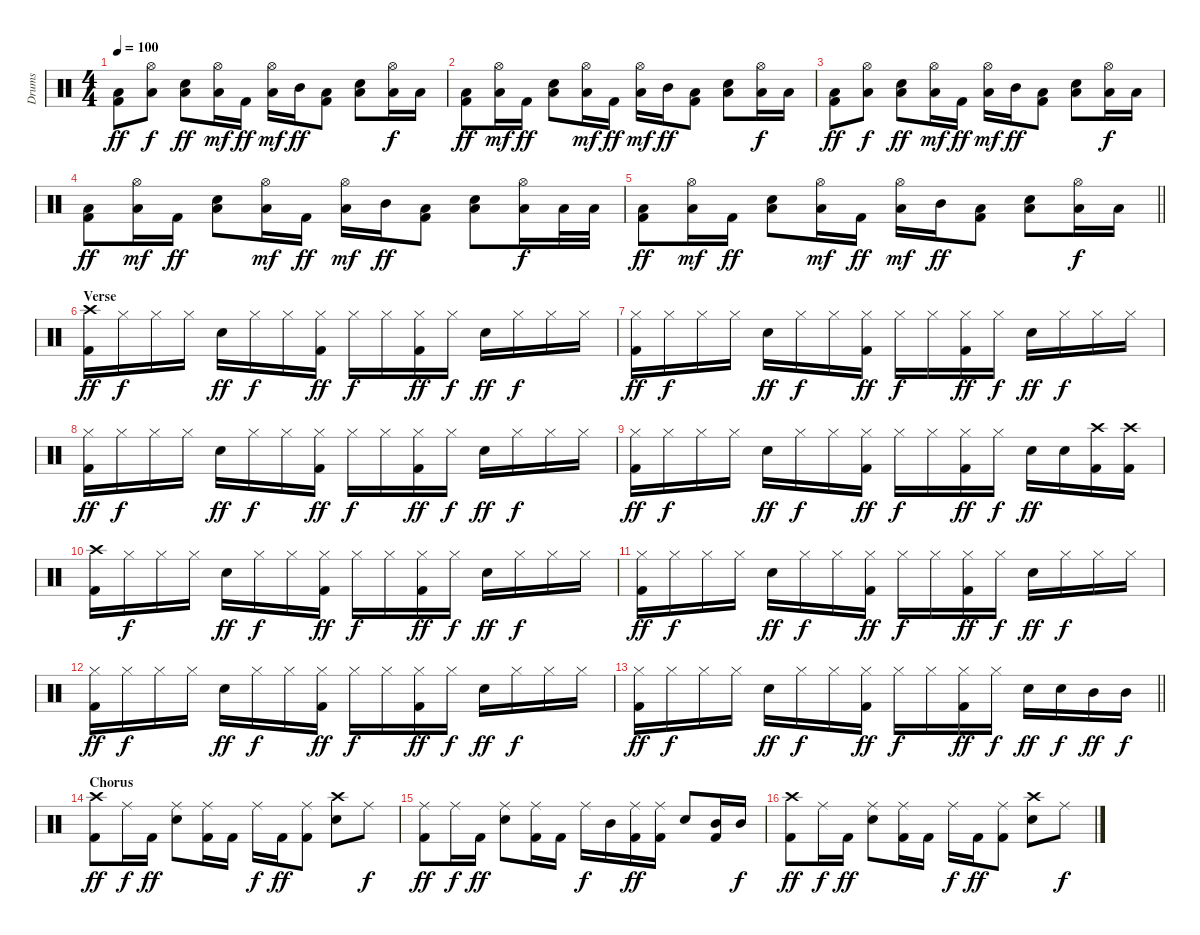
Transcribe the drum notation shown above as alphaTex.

\track ("Drums" "Drums") {instrument percussion}
\staff {score}
\articulation defaults
\ts (4 4)
\tempo 100
\clef neutral
\ks c
("Low Tom (hit)" "Kick (hit) 2").8{dy ff} ("Hi-Hat (open)" "Low Tom (hit)").8{dy f} ("Low Tom (hit)" "Snare (hit) 2").8{dy ff} ("Hi-Hat (open)" "Low Tom (hit)").16{dy mf} "Kick (hit) 2".16{dy ff} ("Hi-Hat (open)" "Low Tom (hit)").16{dy mf} "Mid Tom (hit)".16{dy ff} ("Low Tom (hit)" "Kick (hit) 2").8 ("Low Tom (hit)" "Snare (hit) 2").8 ("Hi-Hat (open)" "Low Tom (hit)").16{dy f} "Low Tom (hit)".16 |
("Low Tom (hit)" "Kick (hit) 2").8{dy ff} ("Hi-Hat (open)" "Low Tom (hit)").16{dy mf} "Kick (hit) 2".16{dy ff} ("Low Tom (hit)" "Snare (hit) 2").8 ("Hi-Hat (open)" "Low Tom (hit)").16{dy mf} "Kick (hit) 2".16{dy ff} ("Hi-Hat (open)" "Low Tom (hit)").16{dy mf} "Mid Tom (hit)".16{dy ff} ("Low Tom (hit)" "Kick (hit) 2").8 ("Low Tom (hit)" "Snare (hit) 2").8 ("Hi-Hat (open)" "Low Tom (hit)").16{dy f} "Low Tom (hit)".16 |
("Low Tom (hit)" "Kick (hit) 2").8{dy ff} ("Hi-Hat (open)" "Low Tom (hit)").8{dy f} ("Low Tom (hit)" "Snare (hit) 2").8{dy ff} ("Hi-Hat (open)" "Low Tom (hit)").16{dy mf} "Kick (hit) 2".16{dy ff} ("Hi-Hat (open)" "Low Tom (hit)").16{dy mf} "Mid Tom (hit)".16{dy ff} ("Low Tom (hit)" "Kick (hit) 2").8 ("Low Tom (hit)" "Snare (hit) 2").8 ("Hi-Hat (open)" "Low Tom (hit)").16{dy f} "Low Tom (hit)".16 |
("Low Tom (hit)" "Kick (hit) 2").8{dy ff} ("Hi-Hat (open)" "Low Tom (hit)").16{dy mf} "Kick (hit) 2".16{dy ff} ("Low Tom (hit)" "Snare (hit) 2").8 ("Hi-Hat (open)" "Low Tom (hit)").16{dy mf} "Kick (hit) 2".16{dy ff} ("Hi-Hat (open)" "Low Tom (hit)").16{dy mf} "Mid Tom (hit)".16{dy ff} ("Low Tom (hit)" "Kick (hit) 2").8 ("Low Tom (hit)" "Snare (hit) 2").8 ("Hi-Hat (open)" "Low Tom (hit)").16{dy f} "Low Tom (hit)".32 "Low Tom (hit)".32 |
\barLineRight lightlight
("Low Tom (hit)" "Kick (hit) 2").8{dy ff} ("Hi-Hat (open)" "Low Tom (hit)").16{dy mf} "Kick (hit) 2".16{dy ff} ("Low Tom (hit)" "Snare (hit) 2").8 ("Hi-Hat (open)" "Low Tom (hit)").16{dy mf} "Kick (hit) 2".16{dy ff} ("Hi-Hat (open)" "Low Tom (hit)").16{dy mf} "Mid Tom (hit)".16{dy ff} ("Low Tom (hit)" "Kick (hit) 2").8 ("Low Tom (hit)" "Snare (hit) 2").8 ("Hi-Hat (open)" "Low Floor Tom (hit)").16{dy f} "Low Floor Tom (hit)".16 |
\section ("" "Verse")
("Crash high (hit)" "Kick (hit) 2").16{dy ff} "Hi-Hat (closed)".16{dy f} "Hi-Hat (closed)".16 "Hi-Hat (closed)".16 "Snare (hit) 2".16{dy ff} "Hi-Hat (closed)".16{dy f} "Hi-Hat (closed)".16 ("Hi-Hat (closed)" "Kick (hit) 2").16{dy ff} "Hi-Hat (closed)".16{dy f} "Hi-Hat (closed)".16 ("Hi-Hat (closed)" "Kick (hit) 2").16{dy ff} "Hi-Hat (closed)".16{dy f} "Snare (hit) 2".16{dy ff} "Hi-Hat (closed)".16{dy f} "Hi-Hat (closed)".16 "Hi-Hat (closed)".16 |
("Hi-Hat (closed)" "Kick (hit) 2").16{dy ff} "Hi-Hat (closed)".16{dy f} "Hi-Hat (closed)".16 "Hi-Hat (closed)".16 "Snare (hit) 2".16{dy ff} "Hi-Hat (closed)".16{dy f} "Hi-Hat (closed)".16 ("Hi-Hat (closed)" "Kick (hit) 2").16{dy ff} "Hi-Hat (closed)".16{dy f} "Hi-Hat (closed)".16 ("Hi-Hat (closed)" "Kick (hit) 2").16{dy ff} "Hi-Hat (closed)".16{dy f} "Snare (hit) 2".16{dy ff} "Hi-Hat (closed)".16{dy f} "Hi-Hat (closed)".16 "Hi-Hat (closed)".16 |
("Hi-Hat (closed)" "Kick (hit) 2").16{dy ff} "Hi-Hat (closed)".16{dy f} "Hi-Hat (closed)".16 "Hi-Hat (closed)".16 "Snare (hit) 2".16{dy ff} "Hi-Hat (closed)".16{dy f} "Hi-Hat (closed)".16 ("Hi-Hat (closed)" "Kick (hit) 2").16{dy ff} "Hi-Hat (closed)".16{dy f} "Hi-Hat (closed)".16 ("Hi-Hat (closed)" "Kick (hit) 2").16{dy ff} "Hi-Hat (closed)".16{dy f} "Snare (hit) 2".16{dy ff} "Hi-Hat (closed)".16{dy f} "Hi-Hat (closed)".16 "Hi-Hat (closed)".16 |
("Hi-Hat (closed)" "Kick (hit) 2").16{dy ff} "Hi-Hat (closed)".16{dy f} "Hi-Hat (closed)".16 "Hi-Hat (closed)".16 "Snare (hit) 2".16{dy ff} "Hi-Hat (closed)".16{dy f} "Hi-Hat (closed)".16 ("Hi-Hat (closed)" "Kick (hit) 2").16{dy ff} "Hi-Hat (closed)".16{dy f} "Hi-Hat (closed)".16 ("Hi-Hat (closed)" "Kick (hit) 2").16{dy ff} "Hi-Hat (closed)".16{dy f} "Snare (hit) 2".16{dy ff} "Snare (hit) 2".16 ("Crash high (hit)" "Kick (hit) 2").16 ("Crash high (hit)" "Kick (hit) 2").16 |
("Crash high (hit)" "Kick (hit) 2").16 "Hi-Hat (closed)".16{dy f} "Hi-Hat (closed)".16 "Hi-Hat (closed)".16 "Snare (hit) 2".16{dy ff} "Hi-Hat (closed)".16{dy f} "Hi-Hat (closed)".16 ("Hi-Hat (closed)" "Kick (hit) 2").16{dy ff} "Hi-Hat (closed)".16{dy f} "Hi-Hat (closed)".16 ("Hi-Hat (closed)" "Kick (hit) 2").16{dy ff} "Hi-Hat (closed)".16{dy f} "Snare (hit) 2".16{dy ff} "Hi-Hat (closed)".16{dy f} "Hi-Hat (closed)".16 "Hi-Hat (closed)".16 |
("Hi-Hat (closed)" "Kick (hit) 2").16{dy ff} "Hi-Hat (closed)".16{dy f} "Hi-Hat (closed)".16 "Hi-Hat (closed)".16 "Snare (hit) 2".16{dy ff} "Hi-Hat (closed)".16{dy f} "Hi-Hat (closed)".16 ("Hi-Hat (closed)" "Kick (hit) 2").16{dy ff} "Hi-Hat (closed)".16{dy f} "Hi-Hat (closed)".16 ("Hi-Hat (closed)" "Kick (hit) 2").16{dy ff} "Hi-Hat (closed)".16{dy f} "Snare (hit) 2".16{dy ff} "Hi-Hat (closed)".16{dy f} "Hi-Hat (closed)".16 "Hi-Hat (closed)".16 |
("Hi-Hat (closed)" "Kick (hit) 2").16{dy ff} "Hi-Hat (closed)".16{dy f} "Hi-Hat (closed)".16 "Hi-Hat (closed)".16 "Snare (hit) 2".16{dy ff} "Hi-Hat (closed)".16{dy f} "Hi-Hat (closed)".16 ("Hi-Hat (closed)" "Kick (hit) 2").16{dy ff} "Hi-Hat (closed)".16{dy f} "Hi-Hat (closed)".16 ("Hi-Hat (closed)" "Kick (hit) 2").16{dy ff} "Hi-Hat (closed)".16{dy f} "Snare (hit) 2".16{dy ff} "Hi-Hat (closed)".16{dy f} "Hi-Hat (closed)".16 "Hi-Hat (closed)".16 |
\barLineRight lightlight
("Hi-Hat (closed)" "Kick (hit) 2").16{dy ff} "Hi-Hat (closed)".16{dy f} "Hi-Hat (closed)".16 "Hi-Hat (closed)".16 "Snare (hit) 2".16{dy ff} "Hi-Hat (closed)".16{dy f} "Hi-Hat (closed)".16 ("Hi-Hat (closed)" "Kick (hit) 2").16{dy ff} "Hi-Hat (closed)".16{dy f} "Hi-Hat (closed)".16 ("Hi-Hat (closed)" "Kick (hit) 2").16{dy ff} "Hi-Hat (closed)".16{dy f} "Snare (hit) 2".16{dy ff} "Snare (hit) 2".16{dy f} "Mid Tom (hit)".16{dy ff} "Mid Tom (hit)".16{dy f} |
\section ("" "Chorus")
("Crash high (hit)" "Kick (hit) 2").8{dy ff} "Ride (middle)".16{dy f} "Kick (hit) 2".16{dy ff} ("Ride (middle)" "Snare (hit) 2").8 ("Ride (middle)" "Kick (hit) 2").16 "Kick (hit) 2".16 "Ride (middle)".16{dy f} "Kick (hit) 2".16{dy ff} ("Ride (middle)" "Kick (hit) 2").8 ("Crash high (hit)" "Snare (hit) 2").8 "Ride (middle)".8{dy f} |
("Ride (middle)" "Kick (hit) 2").8{dy ff} "Ride (middle)".16{dy f} "Kick (hit) 2".16{dy ff} ("Ride (middle)" "Snare (hit) 2").8 ("Ride (middle)" "Kick (hit) 2").16 "Kick (hit) 2".16 "Ride (middle)".16{dy f} "Mid Tom (hit)".16 ("Ride (middle)" "Kick (hit) 2").16{dy ff} ("Ride (middle)" "Kick (hit) 2").16 "Snare (hit) 2".8 ("Mid Tom (hit)" "Kick (hit) 2").16 "Mid Tom (hit)".16{dy f} |
("Crash high (hit)" "Kick (hit) 2").8{dy ff} "Ride (middle)".16{dy f} "Kick (hit) 2".16{dy ff} ("Ride (middle)" "Snare (hit) 2").8 ("Ride (middle)" "Kick (hit) 2").16 "Kick (hit) 2".16 "Ride (middle)".16{dy f} "Kick (hit) 2".16{dy ff} ("Ride (middle)" "Kick (hit) 2").8 ("Crash high (hit)" "Snare (hit) 2").8 "Ride (middle)".8{dy f}
